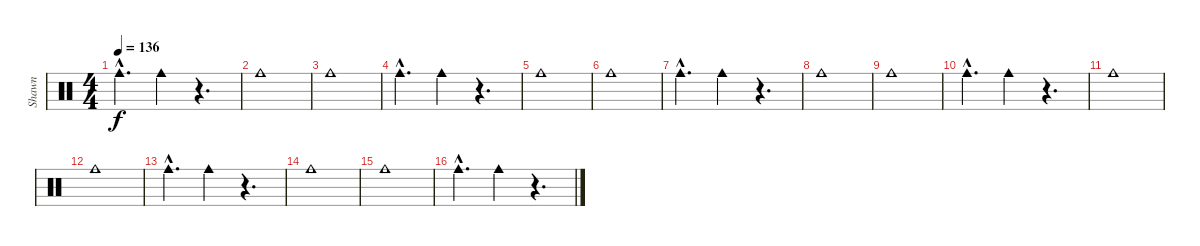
\track ("Shawn" "Shawn") {instrument percussion}
\staff {score}
\articulation defaults
\ts (4 4)
\tempo 136
\clef neutral
\ks c "Cowbell medium (hit)"{hac}.4{d dy f} "Cowbell medium (hit)".4
r.4{d} |
"Cowbell medium (hit)".1 |
"Cowbell medium (hit)".1 |
"Cowbell medium (hit)"{hac}.4{d} "Cowbell medium (hit)".4 r.4{d} |
"Cowbell medium (hit)".1 |
"Cowbell medium (hit)".1 |
"Cowbell medium (hit)"{hac}.4{d} "Cowbell medium (hit)".4 r.4{d} |
"Cowbell medium (hit)".1 |
"Cowbell medium (hit)".1 |
"Cowbell medium (hit)"{hac}.4{d} "Cowbell medium (hit)".4 r.4{d} |
"Cowbell medium (hit)".1 |
"Cowbell medium (hit)".1 |
"Cowbell medium (hit)"{hac}.4{d} "Cowbell medium (hit)".4 r.4{d} |
"Cowbell medium (hit)".1 |
"Cowbell medium (hit)".1 |
"Cowbell medium (hit)"{hac}.4{d} "Cowbell medium (hit)".4 r.4{d}
